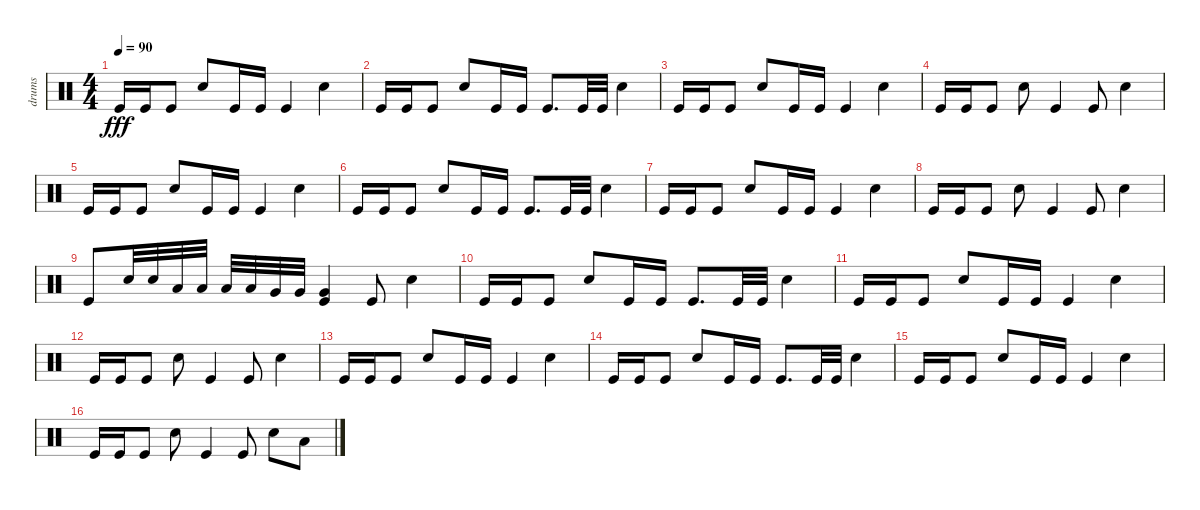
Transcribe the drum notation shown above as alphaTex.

\track ("drums" "drums") {instrument percussion}
\staff {score}
\articulation defaults
\ts (4 4)
\tempo 90
\clef neutral
\ks c "Kick (hit)".16{dy fff} "Kick (hit)".16 "Kick (hit)".8 "Electric Snare (hit)".8 "Kick (hit)".16 "Kick (hit)".16 "Kick (hit)".4 "Electric Snare (hit)".4
|
"Kick (hit)".16 "Kick (hit)".16 "Kick (hit)".8 "Electric Snare (hit)".8 "Kick (hit)".16 "Kick (hit)".16 "Kick (hit)".8{d} "Kick (hit)".32 "Kick (hit)".32 "Electric Snare (hit)".4 |
"Kick (hit)".16 "Kick (hit)".16 "Kick (hit)".8 "Electric Snare (hit)".8 "Kick (hit)".16 "Kick (hit)".16 "Kick (hit)".4 "Electric Snare (hit)".4 |
"Kick (hit)".16 "Kick (hit)".16 "Kick (hit)".8 "Electric Snare (hit)".8 "Kick (hit)".4 "Kick (hit)".8 "Electric Snare (hit)".4 |
"Kick (hit)".16 "Kick (hit)".16 "Kick (hit)".8 "Electric Snare (hit)".8 "Kick (hit)".16 "Kick (hit)".16 "Kick (hit)".4 "Electric Snare (hit)".4 |
"Kick (hit)".16 "Kick (hit)".16 "Kick (hit)".8 "Electric Snare (hit)".8 "Kick (hit)".16 "Kick (hit)".16 "Kick (hit)".8{d} "Kick (hit)".32 "Kick (hit)".32 "Electric Snare (hit)".4 |
"Kick (hit)".16 "Kick (hit)".16 "Kick (hit)".8 "Electric Snare (hit)".8 "Kick (hit)".16 "Kick (hit)".16 "Kick (hit)".4 "Electric Snare (hit)".4 |
"Kick (hit)".16 "Kick (hit)".16 "Kick (hit)".8 "Electric Snare (hit)".8 "Kick (hit)".4 "Kick (hit)".8 "Electric Snare (hit)".4 |
"Kick (hit)".8 "Electric Snare (hit)".32 "Electric Snare (hit)".32 "Low Tom (hit)".32 "Low Tom (hit)".32 "Low Tom (hit)".32 "Low Tom (hit)".32 "Very Low Tom (hit)".32 "Very Low Tom (hit)".32 ("Very Low Tom (hit)" "Kick (hit)").4 "Kick (hit)".8 "Electric Snare (hit)".4 |
"Kick (hit)".16 "Kick (hit)".16 "Kick (hit)".8 "Electric Snare (hit)".8 "Kick (hit)".16 "Kick (hit)".16 "Kick (hit)".8{d} "Kick (hit)".32 "Kick (hit)".32 "Electric Snare (hit)".4 |
"Kick (hit)".16 "Kick (hit)".16 "Kick (hit)".8 "Electric Snare (hit)".8 "Kick (hit)".16 "Kick (hit)".16 "Kick (hit)".4 "Electric Snare (hit)".4 |
"Kick (hit)".16 "Kick (hit)".16 "Kick (hit)".8 "Electric Snare (hit)".8 "Kick (hit)".4 "Kick (hit)".8 "Electric Snare (hit)".4 |
"Kick (hit)".16 "Kick (hit)".16 "Kick (hit)".8 "Electric Snare (hit)".8 "Kick (hit)".16 "Kick (hit)".16 "Kick (hit)".4 "Electric Snare (hit)".4 |
"Kick (hit)".16 "Kick (hit)".16 "Kick (hit)".8 "Electric Snare (hit)".8 "Kick (hit)".16 "Kick (hit)".16 "Kick (hit)".8{d} "Kick (hit)".32 "Kick (hit)".32 "Electric Snare (hit)".4 |
"Kick (hit)".16 "Kick (hit)".16 "Kick (hit)".8 "Electric Snare (hit)".8 "Kick (hit)".16 "Kick (hit)".16 "Kick (hit)".4 "Electric Snare (hit)".4 |
"Kick (hit)".16 "Kick (hit)".16 "Kick (hit)".8 "Electric Snare (hit)".8 "Kick (hit)".4 "Kick (hit)".8 "Electric Snare (hit)".8 "Low Floor Tom (hit)".8
